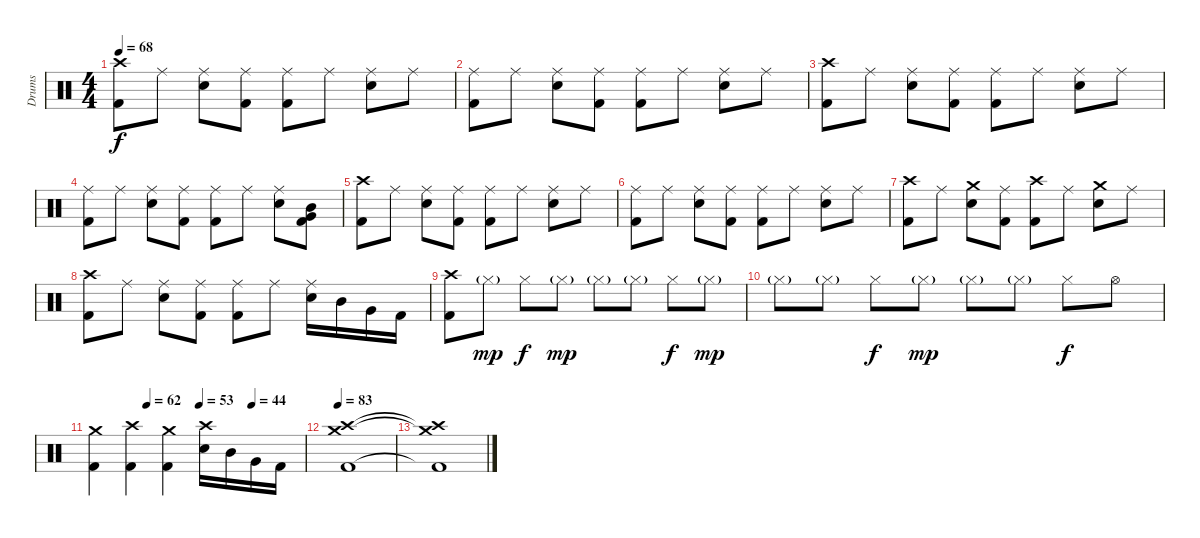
\track ("Drums" "Drums") {instrument percussion}
\staff {score}
\articulation defaults
\ts (4 4)
\tempo 68
\clef neutral
\ks c
("Crash high (hit)" "Kick (hit) 2").8{dy f} "Ride (middle)".8 ("Ride (middle)" "Electric Snare (hit)").8 ("Ride (middle)" "Kick (hit) 2").8 ("Ride (middle)" "Kick (hit) 2").8 "Ride (middle)".8 ("Ride (middle)" "Electric Snare (hit)").8 "Ride (middle)".8 |
("Ride (middle)" "Kick (hit) 2").8 "Ride (middle)".8 ("Ride (middle)" "Electric Snare (hit)").8 ("Ride (middle)" "Kick (hit) 2").8 ("Ride (middle)" "Kick (hit) 2").8 "Ride (middle)".8 ("Ride (middle)" "Electric Snare (hit)").8 "Ride (middle)".8 |
("Crash high (hit)" "Kick (hit) 2").8 "Ride (middle)".8 ("Ride (middle)" "Electric Snare (hit)").8 ("Ride (middle)" "Kick (hit) 2").8 ("Ride (middle)" "Kick (hit) 2").8 "Ride (middle)".8 ("Ride (middle)" "Electric Snare (hit)").8 "Ride (middle)".8 |
("Ride (middle)" "Kick (hit) 2").8 "Ride (middle)".8 ("Ride (middle)" "Electric Snare (hit)").8 ("Ride (middle)" "Kick (hit) 2").8 ("Ride (middle)" "Kick (hit) 2").8 "Ride (middle)".8 ("Ride (middle)" "Electric Snare (hit)").8 ("Mid Tom (hit)" "Very Low Tom (hit)" "Kick (hit) 2").8 |
("Crash high (hit)" "Kick (hit) 2").8 "Ride (middle)".8 ("Ride (middle)" "Electric Snare (hit)").8 ("Ride (middle)" "Kick (hit) 2").8 ("Ride (middle)" "Kick (hit) 2").8 "Ride (middle)".8 ("Ride (middle)" "Electric Snare (hit)").8 "Ride (middle)".8 |
("Ride (middle)" "Kick (hit) 2").8 "Ride (middle)".8 ("Ride (middle)" "Electric Snare (hit)").8 ("Ride (middle)" "Kick (hit) 2").8 ("Ride (middle)" "Kick (hit) 2").8 "Ride (middle)".8 ("Ride (middle)" "Electric Snare (hit)").8 "Ride (middle)".8 |
("Crash high (hit)" "Kick (hit) 2").8 "Ride (middle)".8 ("Crash medium (hit)" "Electric Snare (hit)").8 ("Ride (middle)" "Kick (hit) 2").8 ("Crash high (hit)" "Kick (hit) 2").8 "Ride (middle)".8 ("Crash medium (hit)" "Electric Snare (hit)").8 "Ride (middle)".8 |
("Crash high (hit)" "Kick (hit) 2").8 "Ride (middle)".8 ("Ride (middle)" "Electric Snare (hit)").8 ("Ride (middle)" "Kick (hit) 2").8 ("Ride (middle)" "Kick (hit) 2").8 "Ride (middle)".8 ("Ride (middle)" "Electric Snare (hit)").16 "Mid Tom (hit)".16{balance 13} "Very Low Tom (hit)".16{balance 11} "Kick (hit) 2".16{balance 8} |
("Crash high (hit)" "Kick (hit) 2").8 "Hi-Hat (closed)"{g}.8{dy mp} "Hi-Hat (closed)".8{dy f} "Hi-Hat (closed)"{g}.8{dy mp} "Hi-Hat (closed)"{g}.8 "Hi-Hat (closed)"{g}.8 "Hi-Hat (closed)".8{dy f} "Hi-Hat (closed)"{g}.8{dy mp} |
"Hi-Hat (closed)"{g}.8 "Hi-Hat (closed)"{g}.8 "Hi-Hat (closed)".8{dy f} "Hi-Hat (closed)"{g}.8{dy mp} "Hi-Hat (closed)"{g}.8 "Hi-Hat (closed)"{g}.8 "Hi-Hat (closed)".8{dy f} "Hi-Hat (open)".8 |
\tempo (62 0.25)
\tempo (53 0.5)
\tempo (38 0.75)
\tempo (44 0.75)
("Crash medium (hit)" "Kick (hit) 2").4 ("Crash high (hit)" "Kick (hit) 2").4 ("Crash medium (hit)" "Kick (hit) 2").4 ("Crash high (hit)" "Electric Snare (hit)").16 "Mid Tom (hit)".16 "Very Low Tom (hit)".16 "Kick (hit) 2".16 |
\tempo 68
\tempo 83
("Crash high (hit)" "Crash medium (hit)" "Kick (hit) 2").1 |
("Crash high (hit)"{t} "Crash medium (hit)"{t} "Kick (hit) 2"{t}).1
